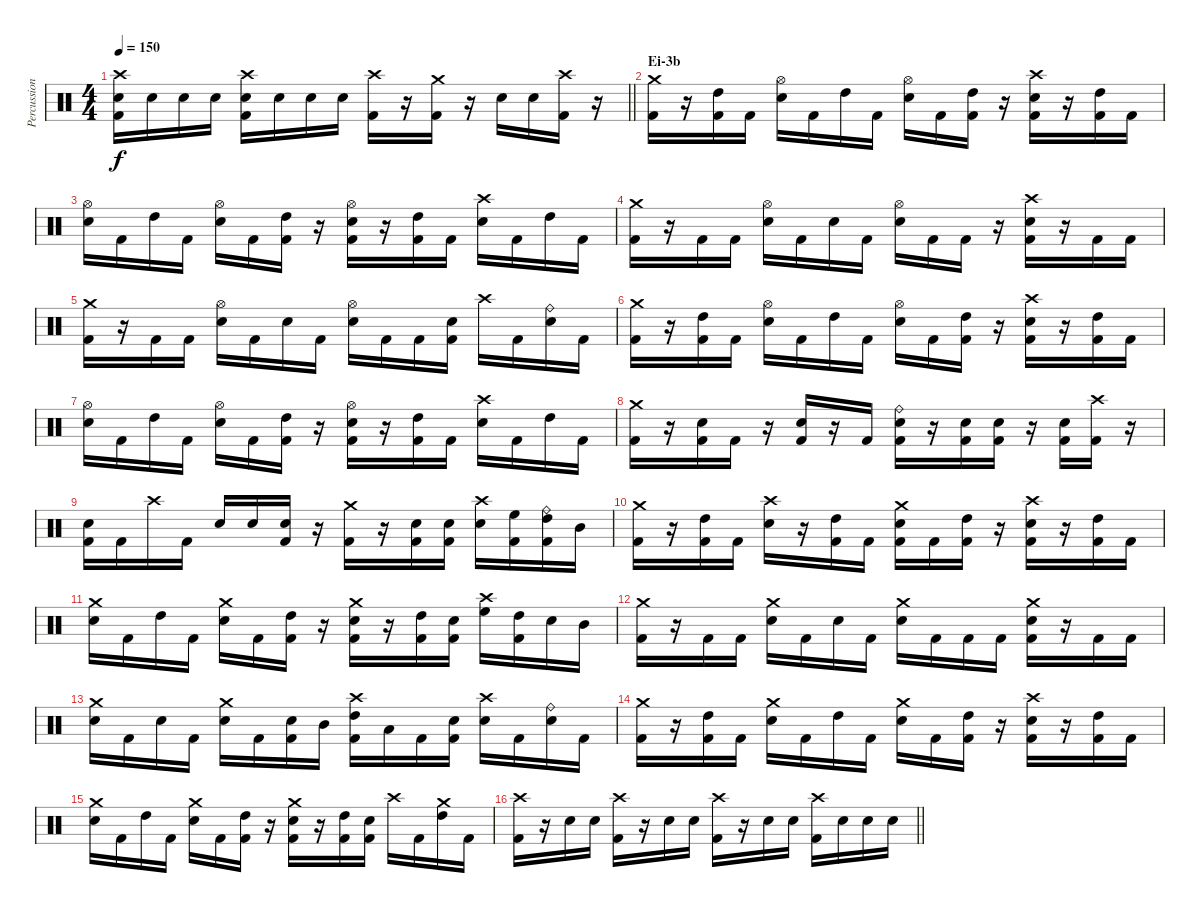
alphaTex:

\track ("Percussion" "Percussion") {instrument percussion}
\staff {score}
\articulation defaults
\ts (4 4)
\tempo 150
\clef neutral
\barLineRight lightlight
\ks c
("Crash high (hit)" "Electric Snare (hit)" "Kick (hit) 2").16{dy f} "Electric Snare (hit)".16 "Electric Snare (hit)".16 "Electric Snare (hit)".16 ("Crash high (hit)" "Electric Snare (hit)" "Kick (hit) 2").16 "Electric Snare (hit)".16 "Electric Snare (hit)".16 "Electric Snare (hit)".16 ("Crash high (hit)" "Kick (hit) 2").16 r.16 ("Crash medium (hit)" "Kick (hit) 2").16 r.16 "Electric Snare (hit)".16 "Electric Snare (hit)".16 ("Crash high (hit)" "Kick (hit) 2").16 r.16 |
\section ("" "Ei-3b")
("Crash medium (hit)" "Kick (hit) 2").16 r.16 ("High Tom (hit)" "Kick (hit) 2").16 "Kick (hit) 2".16 ("Hi-Hat (open)" "Electric Snare (hit)").16 "Kick (hit) 2".16 "High Tom (hit)".16 "Kick (hit) 2".16 ("Hi-Hat (open)" "Electric Snare (hit)").16 "Kick (hit) 2".16 ("High Tom (hit)" "Kick (hit) 2").16 r.16 ("Crash high (hit)" "Electric Snare (hit)" "Kick (hit) 2").16 r.16 ("High Tom (hit)" "Kick (hit) 2").16 "Kick (hit) 2".16 |
("Hi-Hat (open)" "Electric Snare (hit)").16 "Kick (hit) 2".16 "High Tom (hit)".16 "Kick (hit) 2".16 ("Hi-Hat (open)" "Electric Snare (hit)").16 "Kick (hit) 2".16 ("High Tom (hit)" "Kick (hit) 2").16 r.16 ("Hi-Hat (open)" "Electric Snare (hit)" "Kick (hit) 2").16 r.16 ("High Tom (hit)" "Kick (hit) 2").16 "Kick (hit) 2".16 ("Crash high (hit)" "Electric Snare (hit)").16 "Kick (hit) 2".16 "High Tom (hit)".16 "Kick (hit) 2".16 |
("Crash medium (hit)" "Kick (hit) 2").16 r.16 "Kick (hit) 2".16 "Kick (hit) 2".16 ("Hi-Hat (open)" "Electric Snare (hit)").16 "Kick (hit) 2".16 "Electric Snare (hit)".16 "Kick (hit) 2".16 ("Hi-Hat (open)" "Electric Snare (hit)").16 "Kick (hit) 2".16 "Kick (hit) 2".16 r.16 ("Crash high (hit)" "Electric Snare (hit)" "Kick (hit) 2").16 r.16 "Kick (hit) 2".16 "Kick (hit) 2".16 |
("Crash medium (hit)" "Kick (hit) 2").16 r.16 "Kick (hit) 2".16 "Kick (hit) 2".16 ("Hi-Hat (open)" "Electric Snare (hit)").16 "Kick (hit) 2".16 "Electric Snare (hit)".16 "Kick (hit) 2".16 ("Hi-Hat (open)" "Electric Snare (hit)").16 "Kick (hit) 2".16 "Kick (hit) 2".16 ("Electric Snare (hit)" "Kick (hit) 2").16 "Crash high (hit)".16 "Kick (hit) 2".16 ("Ride (bell)" "Electric Snare (hit)").16 "Kick (hit) 2".16 |
("Crash medium (hit)" "Kick (hit) 2").16 r.16 ("High Tom (hit)" "Kick (hit) 2").16 "Kick (hit) 2".16 ("Hi-Hat (open)" "Electric Snare (hit)").16 "Kick (hit) 2".16 "High Tom (hit)".16 "Kick (hit) 2".16 ("Hi-Hat (open)" "Electric Snare (hit)").16 "Kick (hit) 2".16 ("High Tom (hit)" "Kick (hit) 2").16 r.16 ("Crash high (hit)" "Electric Snare (hit)" "Kick (hit) 2").16 r.16 ("High Tom (hit)" "Kick (hit) 2").16 "Kick (hit) 2".16 |
("Hi-Hat (open)" "Electric Snare (hit)").16 "Kick (hit) 2".16 "High Tom (hit)".16 "Kick (hit) 2".16 ("Hi-Hat (open)" "Electric Snare (hit)").16 "Kick (hit) 2".16 ("High Tom (hit)" "Kick (hit) 2").16 r.16 ("Hi-Hat (open)" "Electric Snare (hit)" "Kick (hit) 2").16 r.16 ("High Tom (hit)" "Kick (hit) 2").16 "Kick (hit) 2".16 ("Crash high (hit)" "Electric Snare (hit)").16 "Kick (hit) 2".16 "High Tom (hit)".16 "Kick (hit) 2".16 |
("Crash medium (hit)" "Kick (hit) 2").16 r.16 ("Electric Snare (hit)" "Kick (hit) 2").16 "Kick (hit) 2".16 r.16 ("Electric Snare (hit)" "Kick (hit) 2").16 r.16 "Kick (hit) 2".16 ("Ride (bell)" "Electric Snare (hit)" "Kick (hit) 2").16 r.16 ("Electric Snare (hit)" "Kick (hit) 2").16 ("Electric Snare (hit)" "Kick (hit) 2").16 r.16 ("Electric Snare (hit)" "Kick (hit) 2").16 ("Crash high (hit)" "Kick (hit) 2").16 r.16 |
("Electric Snare (hit)" "Kick (hit) 2").16 "Kick (hit) 2".16 "Crash high (hit)".16 "Kick (hit) 2".16 "Electric Snare (hit)".16 "Electric Snare (hit)".16 ("Electric Snare (hit)" "Kick (hit) 2").16 r.16 ("Crash medium (hit)" "Kick (hit) 2").16 r.16 ("Electric Snare (hit)" "Kick (hit) 2").16 ("Electric Snare (hit)" "Kick (hit) 2").16 ("Crash high (hit)" "Electric Snare (hit)").16 ("High Floor Tom (hit)" "Kick (hit) 2").16 ("Ride (bell)" "High Tom (hit)" "Kick (hit) 2").16 "Mid Tom (hit)".16 |
("Crash medium (hit)" "Kick (hit) 2").16 r.16 ("High Tom (hit)" "Kick (hit) 2").16 "Kick (hit) 2".16 ("Crash high (hit)" "Electric Snare (hit)").16 r.16 ("High Tom (hit)" "Kick (hit) 2").16 "Kick (hit) 2".16 ("Crash medium (hit)" "Electric Snare (hit)" "Kick (hit) 2").16 "Kick (hit) 2".16 ("High Tom (hit)" "Kick (hit) 2").16 r.16 ("Crash high (hit)" "Electric Snare (hit)" "Kick (hit) 2").16 r.16 ("High Tom (hit)" "Kick (hit) 2").16 "Kick (hit) 2".16 |
("Crash medium (hit)" "Electric Snare (hit)").16 "Kick (hit) 2".16 "High Tom (hit)".16 "Kick (hit) 2".16 ("Crash medium (hit)" "Electric Snare (hit)").16 "Kick (hit) 2".16 ("High Tom (hit)" "Kick (hit) 2").16 r.16 ("Crash medium (hit)" "Electric Snare (hit)" "Kick (hit) 2").16 r.16 ("High Tom (hit)" "Kick (hit) 2").16 ("Electric Snare (hit)" "Kick (hit) 2").16 ("Crash high (hit)" "High Floor Tom (hit)").16 ("High Tom (hit)" "Kick (hit) 2").16 "Electric Snare (hit)".16 "Mid Tom (hit)".16 |
("Crash medium (hit)" "Kick (hit) 2").16 r.16 "Kick (hit) 2".16 "Kick (hit) 2".16 ("Crash medium (hit)" "Electric Snare (hit)").16 "Kick (hit) 2".16 "Electric Snare (hit)".16 "Kick (hit) 2".16 ("Crash medium (hit)" "Electric Snare (hit)").16 "Kick (hit) 2".16 "Kick (hit) 2".16 "Kick (hit) 2".16 ("Crash medium (hit)" "Electric Snare (hit)" "Kick (hit) 2").16 r.16 "Kick (hit) 2".16 "Kick (hit) 2".16 |
("Crash medium (hit)" "Electric Snare (hit)").16 "Kick (hit) 2".16 "Electric Snare (hit)".16 "Kick (hit) 2".16 ("Crash medium (hit)" "Electric Snare (hit)").16 "Kick (hit) 2".16 ("Electric Snare (hit)" "Kick (hit) 2").16 "Mid Tom (hit)".16 ("Crash high (hit)" "High Tom (hit)" "Kick (hit) 2").16 "Low Tom (hit)".16 "Kick (hit) 2".16 ("Electric Snare (hit)" "Kick (hit) 2").16 ("Crash high (hit)" "Electric Snare (hit)").16 "Kick (hit) 2".16 ("Ride (bell)" "Electric Snare (hit)").16 "Kick (hit) 2".16 |
("Crash medium (hit)" "Kick (hit) 2").16 r.16 ("High Tom (hit)" "Kick (hit) 2").16 "Kick (hit) 2".16 ("Crash medium (hit)" "Electric Snare (hit)").16 "Kick (hit) 2".16 "High Tom (hit)".16 "Kick (hit) 2".16 ("Crash medium (hit)" "Electric Snare (hit)").16 "Kick (hit) 2".16 ("High Tom (hit)" "Kick (hit) 2").16 r.16 ("Crash high (hit)" "Electric Snare (hit)" "Kick (hit) 2").16 r.16 ("High Tom (hit)" "Kick (hit) 2").16 "Kick (hit) 2".16 |
("Crash medium (hit)" "Electric Snare (hit)").16 "Kick (hit) 2".16 "High Tom (hit)".16 "Kick (hit) 2".16 ("Crash medium (hit)" "Electric Snare (hit)").16 "Kick (hit) 2".16 ("High Tom (hit)" "Kick (hit) 2").16 r.16 ("Crash medium (hit)" "Electric Snare (hit)" "Kick (hit) 2").16 r.16 ("High Tom (hit)" "Kick (hit) 2").16 ("Electric Snare (hit)" "Kick (hit) 2").16 "Crash high (hit)".16 "Kick (hit) 2".16 ("Crash medium (hit)" "High Tom (hit)").16 "Kick (hit) 2".16 |
\barLineRight lightlight
("Crash high (hit)" "Kick (hit) 2").16 r.16 "Electric Snare (hit)".16 "Electric Snare (hit)".16 ("Crash high (hit)" "Kick (hit) 2").16 r.16 "Electric Snare (hit)".16 "Electric Snare (hit)".16 ("Crash high (hit)" "Kick (hit) 2").16 r.16 "Electric Snare (hit)".16 "Electric Snare (hit)".16 ("Crash high (hit)" "Kick (hit) 2").16 "Electric Snare (hit)".16 "Electric Snare (hit)".16 "Electric Snare (hit)".16
